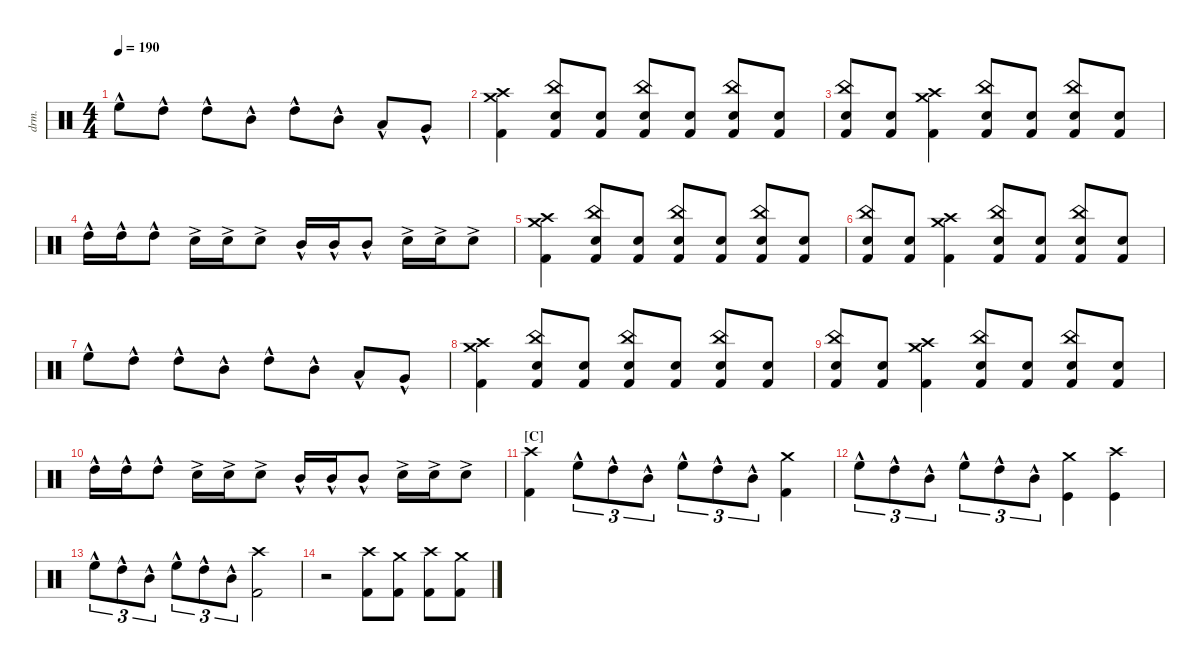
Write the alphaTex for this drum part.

\defaultSystemsLayout 4
\hideDynamics
\bracketExtendMode nobrackets
\otherSystemsTrackNameOrientation horizontal
\track ("Drumkit" "drm.") {instrument percussion}
\staff {score}
\articulation defaults
\ts (4 4)
\tempo 190
\clef neutral
\ks c "High Floor Tom (hit)"{hac}.8{dy mf beam Down} "High Tom (hit)"{hac}.8{beam Down} "High Tom (hit)"{hac}.8{beam Down} "Mid Tom (hit)"{hac}.8{beam Down} "High Tom (hit)"{hac}.8{beam Down} "Mid Tom (hit)"{hac}.8{beam Down} "Low Tom (hit)"{hac}.8{beam Up} "Very Low Tom (hit)"{hac}.8{beam Up}
|
("Kick (hit) 2" "Crash high (hit)" "Crash medium (hit)").4{beam Down} ("Kick (hit) 2" "Snare (hit) 2" "China (hit)").8{beam Up} ("Kick (hit) 2" "Snare (hit) 2").8{beam Up} ("Kick (hit) 2" "Snare (hit) 2" "China (hit)").8{beam Up} ("Kick (hit) 2" "Snare (hit) 2").8{beam Up} ("Kick (hit) 2" "Snare (hit) 2" "China (hit)").8{beam Up} ("Kick (hit) 2" "Snare (hit) 2").8{beam Up} |
("Kick (hit) 2" "Snare (hit) 2" "China (hit)").8{beam Up} ("Kick (hit) 2" "Snare (hit) 2").8{beam Up} ("Kick (hit) 2" "Crash high (hit)" "Crash medium (hit)").4{beam Down} ("Kick (hit) 2" "Snare (hit) 2" "China (hit)").8{beam Up} ("Kick (hit) 2" "Snare (hit) 2").8{beam Up} ("Kick (hit) 2" "Snare (hit) 2" "China (hit)").8{beam Up} ("Kick (hit) 2" "Snare (hit) 2").8{beam Up} |
"High Tom (hit)"{hac}.16{beam Down} "High Tom (hit)"{hac}.16{beam Down} "High Tom (hit)"{hac}.8{beam Down} "Snare (hit) 2"{ac}.16{beam Down} "Snare (hit) 2"{ac}.16{beam Down} "Snare (hit) 2"{ac}.8{beam Down} "Mid Tom (hit)"{hac}.16{beam Up} "Mid Tom (hit)"{hac}.16{beam Up} "Mid Tom (hit)"{hac}.8{beam Up} "Snare (hit) 2"{ac}.16{beam Down} "Snare (hit) 2"{ac}.16{beam Down} "Snare (hit) 2"{ac}.8{beam Down} |
("Kick (hit) 2" "Crash high (hit)" "Crash medium (hit)").4{beam Down} ("Kick (hit) 2" "Snare (hit) 2" "China (hit)").8{beam Up} ("Kick (hit) 2" "Snare (hit) 2").8{beam Up} ("Kick (hit) 2" "Snare (hit) 2" "China (hit)").8{beam Up} ("Kick (hit) 2" "Snare (hit) 2").8{beam Up} ("Kick (hit) 2" "Snare (hit) 2" "China (hit)").8{beam Up} ("Kick (hit) 2" "Snare (hit) 2").8{beam Up} |
("Kick (hit) 2" "Snare (hit) 2" "China (hit)").8{beam Up} ("Kick (hit) 2" "Snare (hit) 2").8{beam Up} ("Kick (hit) 2" "Crash high (hit)" "Crash medium (hit)").4{beam Down} ("Kick (hit) 2" "Snare (hit) 2" "China (hit)").8{beam Up} ("Kick (hit) 2" "Snare (hit) 2").8{beam Up} ("Kick (hit) 2" "Snare (hit) 2" "China (hit)").8{beam Up} ("Kick (hit) 2" "Snare (hit) 2").8{beam Up} |
"High Floor Tom (hit)"{hac}.8{beam Down} "High Tom (hit)"{hac}.8{beam Down} "High Tom (hit)"{hac}.8{beam Down} "Mid Tom (hit)"{hac}.8{beam Down} "High Tom (hit)"{hac}.8{beam Down} "Mid Tom (hit)"{hac}.8{beam Down} "Low Tom (hit)"{hac}.8{beam Up} "Very Low Tom (hit)"{hac}.8{beam Up} |
("Kick (hit) 2" "Crash high (hit)" "Crash medium (hit)").4{beam Down} ("Kick (hit) 2" "Snare (hit) 2" "China (hit)").8{beam Up} ("Kick (hit) 2" "Snare (hit) 2").8{beam Up} ("Kick (hit) 2" "Snare (hit) 2" "China (hit)").8{beam Up} ("Kick (hit) 2" "Snare (hit) 2").8{beam Up} ("Kick (hit) 2" "Snare (hit) 2" "China (hit)").8{beam Up} ("Kick (hit) 2" "Snare (hit) 2").8{beam Up} |
("Kick (hit) 2" "Snare (hit) 2" "China (hit)").8{beam Up} ("Kick (hit) 2" "Snare (hit) 2").8{beam Up} ("Kick (hit) 2" "Crash high (hit)" "Crash medium (hit)").4{beam Down} ("Kick (hit) 2" "Snare (hit) 2" "China (hit)").8{beam Up} ("Kick (hit) 2" "Snare (hit) 2").8{beam Up} ("Kick (hit) 2" "Snare (hit) 2" "China (hit)").8{beam Up} ("Kick (hit) 2" "Snare (hit) 2").8{beam Up} |
"High Tom (hit)"{hac}.16{beam Down} "High Tom (hit)"{hac}.16{beam Down} "High Tom (hit)"{hac}.8{beam Down} "Snare (hit) 2"{ac}.16{beam Down} "Snare (hit) 2"{ac}.16{beam Down} "Snare (hit) 2"{ac}.8{beam Down} "Mid Tom (hit)"{hac}.16{beam Up} "Mid Tom (hit)"{hac}.16{beam Up} "Mid Tom (hit)"{hac}.8{beam Up} "Snare (hit) 2"{ac}.16{beam Down} "Snare (hit) 2"{ac}.16{beam Down} "Snare (hit) 2"{ac}.8{beam Down} |
\section ("C" "")
("Kick (hit) 2" "Crash high (hit)").4{beam Down} "High Floor Tom (hit)"{hac}.8{tu (3 2) beam Down} "High Tom (hit)"{hac}.8{tu (3 2) beam Down} "Mid Tom (hit)"{hac}.8{tu (3 2) beam Down} "High Floor Tom (hit)"{hac}.8{tu (3 2) beam Down} "High Tom (hit)"{hac}.8{tu (3 2) beam Down} "Mid Tom (hit)"{hac}.8{tu (3 2) beam Down} ("Kick (hit) 2" "Crash medium (hit)").4{beam Down} |
"High Floor Tom (hit)"{hac}.8{tu (3 2) beam Down} "High Tom (hit)"{hac}.8{tu (3 2) beam Down} "Mid Tom (hit)"{hac}.8{tu (3 2) beam Down} "High Floor Tom (hit)"{hac}.8{tu (3 2) beam Down} "High Tom (hit)"{hac}.8{tu (3 2) beam Down} "Mid Tom (hit)"{hac}.8{tu (3 2) beam Down} ("Kick (hit)" "Crash medium (hit)").4{beam Down} ("Kick (hit)" "Crash high (hit)").4{beam Down} |
"High Floor Tom (hit)"{hac}.8{tu (3 2) beam Down} "High Tom (hit)"{hac}.8{tu (3 2) beam Down} "Mid Tom (hit)"{hac}.8{tu (3 2) beam Down} "High Floor Tom (hit)"{hac}.8{tu (3 2) beam Down} "High Tom (hit)"{hac}.8{tu (3 2) beam Down} "Mid Tom (hit)"{hac}.8{tu (3 2) beam Down} ("Kick (hit) 2" "Crash high (hit)").2{beam Down} |
r.2{beam Down} ("Kick (hit) 2" "Crash high (hit)").8{beam Down} ("Kick (hit) 2" "Crash medium (hit)").8{beam Down} ("Kick (hit) 2" "Crash high (hit)").8{beam Down} ("Kick (hit) 2" "Crash medium (hit)").8{beam Down}
